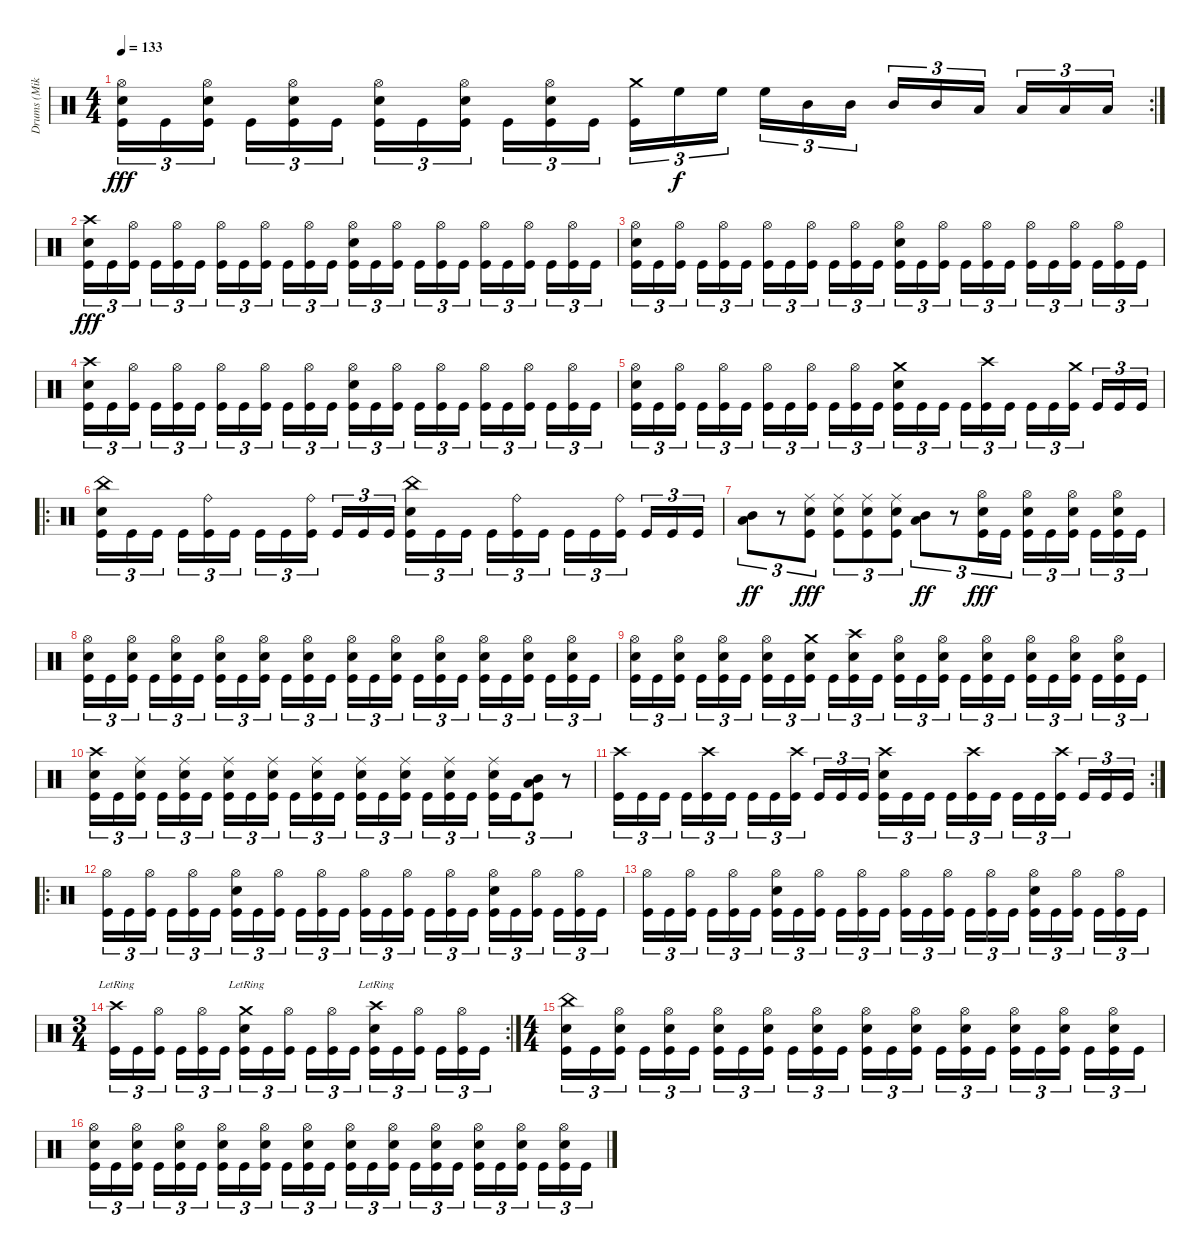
\track ("Drums (Mike)" "Drums (Mik") {instrument percussion}
\staff {score}
\articulation defaults
\rc 2
\ts (4 4)
\tempo 133
\clef neutral
\ks c
("Hi-Hat (open)" "Electric Snare (hit)" "Kick (hit)").16{tu (3 2) dy fff} "Kick (hit)".16{tu (3 2)} ("Hi-Hat (open)" "Electric Snare (hit)" "Kick (hit)").16{tu (3 2)} "Kick (hit)".16{tu (3 2)} ("Hi-Hat (open)" "Electric Snare (hit)" "Kick (hit)").16{tu (3 2)} "Kick (hit)".16{tu (3 2)} ("Hi-Hat (open)" "Electric Snare (hit)" "Kick (hit)").16{tu (3 2)} "Kick (hit)".16{tu (3 2)} ("Hi-Hat (open)" "Electric Snare (hit)" "Kick (hit)").16{tu (3 2)} "Kick (hit)".16{tu (3 2)} ("Hi-Hat (open)" "Electric Snare (hit)" "Kick (hit)").16{tu (3 2)} "Kick (hit)".16{tu (3 2)} ("Crash medium (hit)" "Kick (hit)").16{tu (3 2)} "High Floor Tom (hit)".16{tu (3 2) dy f} "High Floor Tom (hit)".16{tu (3 2)} "High Floor Tom (hit)".16{tu (3 2)} "Mid Tom (hit)".16{tu (3 2)} "Mid Tom (hit)".16{tu (3 2)} "Mid Tom (hit)".16{tu (3 2)} "Mid Tom (hit)".16{tu (3 2)} "Low Tom (hit)".16{tu (3 2)} "Low Tom (hit)".16{tu (3 2)} "Low Tom (hit)".16{tu (3 2)} "Low Tom (hit)".16{tu (3 2)} |
("Crash high (hit)" "Electric Snare (hit)" "Kick (hit)").16{tu (3 2) dy fff} "Kick (hit)".16{tu (3 2)} ("Hi-Hat (open)" "Kick (hit)").16{tu (3 2)} "Kick (hit)".16{tu (3 2)} ("Hi-Hat (open)" "Kick (hit)").16{tu (3 2)} "Kick (hit)".16{tu (3 2)} ("Hi-Hat (open)" "Kick (hit)").16{tu (3 2)} "Kick (hit)".16{tu (3 2)} ("Hi-Hat (open)" "Kick (hit)").16{tu (3 2)} "Kick (hit)".16{tu (3 2)} ("Hi-Hat (open)" "Kick (hit)").16{tu (3 2)} "Kick (hit)".16{tu (3 2)} ("Hi-Hat (open)" "Electric Snare (hit)" "Kick (hit)").16{tu (3 2)} "Kick (hit)".16{tu (3 2)} ("Hi-Hat (open)" "Kick (hit)").16{tu (3 2)} "Kick (hit)".16{tu (3 2)} ("Hi-Hat (open)" "Kick (hit)").16{tu (3 2)} "Kick (hit)".16{tu (3 2)} ("Hi-Hat (open)" "Kick (hit)").16{tu (3 2)} "Kick (hit)".16{tu (3 2)} ("Hi-Hat (open)" "Kick (hit)").16{tu (3 2)} "Kick (hit)".16{tu (3 2)} ("Hi-Hat (open)" "Kick (hit)").16{tu (3 2)} "Kick (hit)".16{tu (3 2)} |
("Hi-Hat (open)" "Electric Snare (hit)" "Kick (hit)").16{tu (3 2)} "Kick (hit)".16{tu (3 2)} ("Hi-Hat (open)" "Kick (hit)").16{tu (3 2)} "Kick (hit)".16{tu (3 2)} ("Hi-Hat (open)" "Kick (hit)").16{tu (3 2)} "Kick (hit)".16{tu (3 2)} ("Hi-Hat (open)" "Kick (hit)").16{tu (3 2)} "Kick (hit)".16{tu (3 2)} ("Hi-Hat (open)" "Kick (hit)").16{tu (3 2)} "Kick (hit)".16{tu (3 2)} ("Hi-Hat (open)" "Kick (hit)").16{tu (3 2)} "Kick (hit)".16{tu (3 2)} ("Hi-Hat (open)" "Electric Snare (hit)" "Kick (hit)").16{tu (3 2)} "Kick (hit)".16{tu (3 2)} ("Hi-Hat (open)" "Kick (hit)").16{tu (3 2)} "Kick (hit)".16{tu (3 2)} ("Hi-Hat (open)" "Kick (hit)").16{tu (3 2)} "Kick (hit)".16{tu (3 2)} ("Hi-Hat (open)" "Kick (hit)").16{tu (3 2)} "Kick (hit)".16{tu (3 2)} ("Hi-Hat (open)" "Kick (hit)").16{tu (3 2)} "Kick (hit)".16{tu (3 2)} ("Hi-Hat (open)" "Kick (hit)").16{tu (3 2)} "Kick (hit)".16{tu (3 2)} |
("Crash high (hit)" "Electric Snare (hit)" "Kick (hit)").16{tu (3 2)} "Kick (hit)".16{tu (3 2)} ("Hi-Hat (open)" "Kick (hit)").16{tu (3 2)} "Kick (hit)".16{tu (3 2)} ("Hi-Hat (open)" "Kick (hit)").16{tu (3 2)} "Kick (hit)".16{tu (3 2)} ("Hi-Hat (open)" "Kick (hit)").16{tu (3 2)} "Kick (hit)".16{tu (3 2)} ("Hi-Hat (open)" "Kick (hit)").16{tu (3 2)} "Kick (hit)".16{tu (3 2)} ("Hi-Hat (open)" "Kick (hit)").16{tu (3 2)} "Kick (hit)".16{tu (3 2)} ("Hi-Hat (open)" "Electric Snare (hit)" "Kick (hit)").16{tu (3 2)} "Kick (hit)".16{tu (3 2)} ("Hi-Hat (open)" "Kick (hit)").16{tu (3 2)} "Kick (hit)".16{tu (3 2)} ("Hi-Hat (open)" "Kick (hit)").16{tu (3 2)} "Kick (hit)".16{tu (3 2)} ("Hi-Hat (open)" "Kick (hit)").16{tu (3 2)} "Kick (hit)".16{tu (3 2)} ("Hi-Hat (open)" "Kick (hit)").16{tu (3 2)} "Kick (hit)".16{tu (3 2)} ("Hi-Hat (open)" "Kick (hit)").16{tu (3 2)} "Kick (hit)".16{tu (3 2)} |
("Hi-Hat (open)" "Electric Snare (hit)" "Kick (hit)").16{tu (3 2)} "Kick (hit)".16{tu (3 2)} ("Hi-Hat (open)" "Kick (hit)").16{tu (3 2)} "Kick (hit)".16{tu (3 2)} ("Hi-Hat (open)" "Kick (hit)").16{tu (3 2)} "Kick (hit)".16{tu (3 2)} ("Hi-Hat (open)" "Kick (hit)").16{tu (3 2)} "Kick (hit)".16{tu (3 2)} ("Hi-Hat (open)" "Kick (hit)").16{tu (3 2)} "Kick (hit)".16{tu (3 2)} ("Hi-Hat (open)" "Kick (hit)").16{tu (3 2)} "Kick (hit)".16{tu (3 2)} ("Crash medium (hit)" "Electric Snare (hit)" "Kick (hit)").16{tu (3 2)} "Kick (hit)".16{tu (3 2)} "Kick (hit)".16{tu (3 2)} "Kick (hit)".16{tu (3 2)} ("Crash high (hit)" "Kick (hit)").16{tu (3 2)} "Kick (hit)".16{tu (3 2)} "Kick (hit)".16{tu (3 2)} "Kick (hit)".16{tu (3 2)} ("Crash medium (hit)" "Kick (hit)").16{tu (3 2)} "Kick (hit)".16{tu (3 2)} "Kick (hit)".16{tu (3 2)} "Kick (hit)".16{tu (3 2)} |
\ro
("China (hit)" "Electric Snare (hit)" "Kick (hit)").16{tu (3 2)} "Kick (hit)".16{tu (3 2)} "Kick (hit)".16{tu (3 2)} "Kick (hit)".16{tu (3 2)} ("Ride (bell)" "Kick (hit)").16{tu (3 2)} "Kick (hit)".16{tu (3 2)} "Kick (hit)".16{tu (3 2)} "Kick (hit)".16{tu (3 2)} ("Ride (bell)" "Kick (hit)").16{tu (3 2)} "Kick (hit)".16{tu (3 2)} "Kick (hit)".16{tu (3 2)} "Kick (hit)".16{tu (3 2)} ("China (hit)" "Electric Snare (hit)" "Kick (hit)").16{tu (3 2)} "Kick (hit)".16{tu (3 2)} "Kick (hit)".16{tu (3 2)} "Kick (hit)".16{tu (3 2)} ("Ride (bell)" "Kick (hit)").16{tu (3 2)} "Kick (hit)".16{tu (3 2)} "Kick (hit)".16{tu (3 2)} "Kick (hit)".16{tu (3 2)} ("Ride (bell)" "Kick (hit)").16{tu (3 2)} "Kick (hit)".16{tu (3 2)} "Kick (hit)".16{tu (3 2)} "Kick (hit)".16{tu (3 2)} |
("Low Tom (hit)" "Mid Tom (hit)").8{tu (3 2) dy ff} r.8{tu (3 2)} ("Ride (middle)" "Electric Snare (hit)" "Kick (hit)").8{tu (3 2) dy fff} ("Ride (middle)" "Electric Snare (hit)" "Kick (hit)").8{tu (3 2)} ("Ride (middle)" "Electric Snare (hit)" "Kick (hit)").8{tu (3 2)} ("Ride (middle)" "Electric Snare (hit)" "Kick (hit)").8{tu (3 2)} ("Low Tom (hit)" "Mid Tom (hit)").8{tu (3 2) dy ff} r.8{tu (3 2)} ("Hi-Hat (open)" "Electric Snare (hit)" "Kick (hit)").16{tu (3 2) dy fff} "Kick (hit)".16{tu (3 2)} ("Hi-Hat (open)" "Electric Snare (hit)" "Kick (hit)").16{tu (3 2)} "Kick (hit)".16{tu (3 2)} ("Hi-Hat (open)" "Electric Snare (hit)" "Kick (hit)").16{tu (3 2)} "Kick (hit)".16{tu (3 2)} ("Hi-Hat (open)" "Electric Snare (hit)" "Kick (hit)").16{tu (3 2)} "Kick (hit)".16{tu (3 2)} |
("Hi-Hat (open)" "Electric Snare (hit)" "Kick (hit)").16{tu (3 2)} "Kick (hit)".16{tu (3 2)} ("Hi-Hat (open)" "Electric Snare (hit)" "Kick (hit)").16{tu (3 2)} "Kick (hit)".16{tu (3 2)} ("Hi-Hat (open)" "Electric Snare (hit)" "Kick (hit)").16{tu (3 2)} "Kick (hit)".16{tu (3 2)} ("Hi-Hat (open)" "Electric Snare (hit)" "Kick (hit)").16{tu (3 2)} "Kick (hit)".16{tu (3 2)} ("Hi-Hat (open)" "Electric Snare (hit)" "Kick (hit)").16{tu (3 2)} "Kick (hit)".16{tu (3 2)} ("Hi-Hat (open)" "Electric Snare (hit)" "Kick (hit)").16{tu (3 2)} "Kick (hit)".16{tu (3 2)} ("Hi-Hat (open)" "Electric Snare (hit)" "Kick (hit)").16{tu (3 2)} "Kick (hit)".16{tu (3 2)} ("Hi-Hat (open)" "Electric Snare (hit)" "Kick (hit)").16{tu (3 2)} "Kick (hit)".16{tu (3 2)} ("Hi-Hat (open)" "Electric Snare (hit)" "Kick (hit)").16{tu (3 2)} "Kick (hit)".16{tu (3 2)} ("Hi-Hat (open)" "Electric Snare (hit)" "Kick (hit)").16{tu (3 2)} "Kick (hit)".16{tu (3 2)} ("Hi-Hat (open)" "Electric Snare (hit)" "Kick (hit)").16{tu (3 2)} "Kick (hit)".16{tu (3 2)} ("Hi-Hat (open)" "Electric Snare (hit)" "Kick (hit)").16{tu (3 2)} "Kick (hit)".16{tu (3 2)} |
("Hi-Hat (open)" "Electric Snare (hit)" "Kick (hit)").16{tu (3 2)} "Kick (hit)".16{tu (3 2)} ("Hi-Hat (open)" "Electric Snare (hit)" "Kick (hit)").16{tu (3 2)} "Kick (hit)".16{tu (3 2)} ("Hi-Hat (open)" "Electric Snare (hit)" "Kick (hit)").16{tu (3 2)} "Kick (hit)".16{tu (3 2)} ("Hi-Hat (open)" "Electric Snare (hit)" "Kick (hit)").16{tu (3 2)} "Kick (hit)".16{tu (3 2)} ("Crash medium (hit)" "Electric Snare (hit)" "Kick (hit)").16{tu (3 2)} "Kick (hit)".16{tu (3 2)} ("Crash high (hit)" "Electric Snare (hit)" "Kick (hit)").16{tu (3 2)} "Kick (hit)".16{tu (3 2)} ("Hi-Hat (open)" "Electric Snare (hit)" "Kick (hit)").16{tu (3 2)} "Kick (hit)".16{tu (3 2)} ("Hi-Hat (open)" "Electric Snare (hit)" "Kick (hit)").16{tu (3 2)} "Kick (hit)".16{tu (3 2)} ("Hi-Hat (open)" "Electric Snare (hit)" "Kick (hit)").16{tu (3 2)} "Kick (hit)".16{tu (3 2)} ("Hi-Hat (open)" "Electric Snare (hit)" "Kick (hit)").16{tu (3 2)} "Kick (hit)".16{tu (3 2)} ("Hi-Hat (open)" "Electric Snare (hit)" "Kick (hit)").16{tu (3 2)} "Kick (hit)".16{tu (3 2)} ("Hi-Hat (open)" "Electric Snare (hit)" "Kick (hit)").16{tu (3 2)} "Kick (hit)".16{tu (3 2)} |
("Crash high (hit)" "Electric Snare (hit)" "Kick (hit)").16{tu (3 2)} "Kick (hit)".16{tu (3 2)} ("Ride (middle)" "Electric Snare (hit)" "Kick (hit)").16{tu (3 2)} "Kick (hit)".16{tu (3 2)} ("Ride (middle)" "Electric Snare (hit)" "Kick (hit)").16{tu (3 2)} "Kick (hit)".16{tu (3 2)} ("Ride (middle)" "Electric Snare (hit)" "Kick (hit)").16{tu (3 2)} "Kick (hit)".16{tu (3 2)} ("Ride (middle)" "Electric Snare (hit)" "Kick (hit)").16{tu (3 2)} "Kick (hit)".16{tu (3 2)} ("Ride (middle)" "Electric Snare (hit)" "Kick (hit)").16{tu (3 2)} "Kick (hit)".16{tu (3 2)} ("Ride (middle)" "Electric Snare (hit)" "Kick (hit)").16{tu (3 2)} "Kick (hit)".16{tu (3 2)} ("Ride (middle)" "Electric Snare (hit)" "Kick (hit)").16{tu (3 2)} "Kick (hit)".16{tu (3 2)} ("Ride (middle)" "Electric Snare (hit)" "Kick (hit)").16{tu (3 2)} "Kick (hit)".16{tu (3 2)} ("Ride (middle)" "Electric Snare (hit)" "Kick (hit)").16{tu (3 2)} "Kick (hit)".16{tu (3 2)} ("Low Tom (hit)" "Mid Tom (hit)" "Kick (hit)").8{tu (3 2)} r.8{tu (3 2)} |
\rc 2
("Crash high (hit)" "Kick (hit)").16{tu (3 2)} "Kick (hit)".16{tu (3 2)} "Kick (hit)".16{tu (3 2)} "Kick (hit)".16{tu (3 2)} ("Crash high (hit)" "Kick (hit)").16{tu (3 2)} "Kick (hit)".16{tu (3 2)} "Kick (hit)".16{tu (3 2)} "Kick (hit)".16{tu (3 2)} ("Crash high (hit)" "Kick (hit)").16{tu (3 2)} "Kick (hit)".16{tu (3 2)} "Kick (hit)".16{tu (3 2)} "Kick (hit)".16{tu (3 2)} ("Crash high (hit)" "Electric Snare (hit)" "Kick (hit)").16{tu (3 2)} "Kick (hit)".16{tu (3 2)} "Kick (hit)".16{tu (3 2)} "Kick (hit)".16{tu (3 2)} ("Crash high (hit)" "Kick (hit)").16{tu (3 2)} "Kick (hit)".16{tu (3 2)} "Kick (hit)".16{tu (3 2)} "Kick (hit)".16{tu (3 2)} ("Crash high (hit)" "Kick (hit)").16{tu (3 2)} "Kick (hit)".16{tu (3 2)} "Kick (hit)".16{tu (3 2)} "Kick (hit)".16{tu (3 2)} |
\ro
("Hi-Hat (open)" "Kick (hit)").16{tu (3 2)} "Kick (hit)".16{tu (3 2)} ("Hi-Hat (open)" "Kick (hit)").16{tu (3 2)} "Kick (hit)".16{tu (3 2)} ("Hi-Hat (open)" "Kick (hit)").16{tu (3 2)} "Kick (hit)".16{tu (3 2)} ("Hi-Hat (open)" "Electric Snare (hit)" "Kick (hit)").16{tu (3 2)} "Kick (hit)".16{tu (3 2)} ("Hi-Hat (open)" "Kick (hit)").16{tu (3 2)} "Kick (hit)".16{tu (3 2)} ("Hi-Hat (open)" "Kick (hit)").16{tu (3 2)} "Kick (hit)".16{tu (3 2)} ("Hi-Hat (open)" "Kick (hit)").16{tu (3 2)} "Kick (hit)".16{tu (3 2)} ("Hi-Hat (open)" "Kick (hit)").16{tu (3 2)} "Kick (hit)".16{tu (3 2)} ("Hi-Hat (open)" "Kick (hit)").16{tu (3 2)} "Kick (hit)".16{tu (3 2)} ("Hi-Hat (open)" "Electric Snare (hit)" "Kick (hit)").16{tu (3 2)} "Kick (hit)".16{tu (3 2)} ("Hi-Hat (open)" "Kick (hit)").16{tu (3 2)} "Kick (hit)".16{tu (3 2)} ("Hi-Hat (open)" "Kick (hit)").16{tu (3 2)} "Kick (hit)".16{tu (3 2)} |
("Hi-Hat (open)" "Kick (hit)").16{tu (3 2)} "Kick (hit)".16{tu (3 2)} ("Hi-Hat (open)" "Kick (hit)").16{tu (3 2)} "Kick (hit)".16{tu (3 2)} ("Hi-Hat (open)" "Kick (hit)").16{tu (3 2)} "Kick (hit)".16{tu (3 2)} ("Hi-Hat (open)" "Electric Snare (hit)" "Kick (hit)").16{tu (3 2)} "Kick (hit)".16{tu (3 2)} ("Hi-Hat (open)" "Kick (hit)").16{tu (3 2)} "Kick (hit)".16{tu (3 2)} ("Hi-Hat (open)" "Kick (hit)").16{tu (3 2)} "Kick (hit)".16{tu (3 2)} ("Hi-Hat (open)" "Kick (hit)").16{tu (3 2)} "Kick (hit)".16{tu (3 2)} ("Hi-Hat (open)" "Kick (hit)").16{tu (3 2)} "Kick (hit)".16{tu (3 2)} ("Hi-Hat (open)" "Kick (hit)").16{tu (3 2)} "Kick (hit)".16{tu (3 2)} ("Hi-Hat (open)" "Electric Snare (hit)" "Kick (hit)").16{tu (3 2)} "Kick (hit)".16{tu (3 2)} ("Hi-Hat (open)" "Kick (hit)").16{tu (3 2)} "Kick (hit)".16{tu (3 2)} ("Hi-Hat (open)" "Kick (hit)").16{tu (3 2)} "Kick (hit)".16{tu (3 2)} |
\rc 2
\ts (3 4)
("Crash high (hit)"{lr} "Kick (hit)").16{tu (3 2)} "Kick (hit)".16{tu (3 2)} ("Hi-Hat (open)" "Kick (hit)").16{tu (3 2)} "Kick (hit)".16{tu (3 2)} ("Hi-Hat (open)" "Kick (hit)").16{tu (3 2)} "Kick (hit)".16{tu (3 2)} ("Crash medium (hit)"{lr} "Electric Snare (hit)" "Kick (hit)").16{tu (3 2)} "Kick (hit)".16{tu (3 2)} ("Hi-Hat (open)" "Kick (hit)").16{tu (3 2)} "Kick (hit)".16{tu (3 2)} ("Hi-Hat (open)" "Kick (hit)").16{tu (3 2)} "Kick (hit)".16{tu (3 2)} ("Crash high (hit)"{lr} "Electric Snare (hit)" "Kick (hit)").16{tu (3 2)} "Kick (hit)".16{tu (3 2)} ("Hi-Hat (open)" "Kick (hit)").16{tu (3 2)} "Kick (hit)".16{tu (3 2)} ("Hi-Hat (open)" "Kick (hit)").16{tu (3 2)} "Kick (hit)".16{tu (3 2)} |
\ts (4 4)
("China (hit)" "Electric Snare (hit)" "Kick (hit)").16{tu (3 2)} "Kick (hit)".16{tu (3 2)} ("Hi-Hat (open)" "Electric Snare (hit)" "Kick (hit)").16{tu (3 2)} "Kick (hit)".16{tu (3 2)} ("Hi-Hat (open)" "Electric Snare (hit)" "Kick (hit)").16{tu (3 2)} "Kick (hit)".16{tu (3 2)} ("Hi-Hat (open)" "Electric Snare (hit)" "Kick (hit)").16{tu (3 2)} "Kick (hit)".16{tu (3 2)} ("Hi-Hat (open)" "Electric Snare (hit)" "Kick (hit)").16{tu (3 2)} "Kick (hit)".16{tu (3 2)} ("Hi-Hat (open)" "Electric Snare (hit)" "Kick (hit)").16{tu (3 2)} "Kick (hit)".16{tu (3 2)} ("Hi-Hat (open)" "Electric Snare (hit)" "Kick (hit)").16{tu (3 2)} "Kick (hit)".16{tu (3 2)} ("Hi-Hat (open)" "Electric Snare (hit)" "Kick (hit)").16{tu (3 2)} "Kick (hit)".16{tu (3 2)} ("Hi-Hat (open)" "Electric Snare (hit)" "Kick (hit)").16{tu (3 2)} "Kick (hit)".16{tu (3 2)} ("Hi-Hat (open)" "Electric Snare (hit)" "Kick (hit)").16{tu (3 2)} "Kick (hit)".16{tu (3 2)} ("Hi-Hat (open)" "Electric Snare (hit)" "Kick (hit)").16{tu (3 2)} "Kick (hit)".16{tu (3 2)} ("Hi-Hat (open)" "Electric Snare (hit)" "Kick (hit)").16{tu (3 2)} "Kick (hit)".16{tu (3 2)} |
("Hi-Hat (open)" "Electric Snare (hit)" "Kick (hit)").16{tu (3 2)} "Kick (hit)".16{tu (3 2)} ("Hi-Hat (open)" "Electric Snare (hit)" "Kick (hit)").16{tu (3 2)} "Kick (hit)".16{tu (3 2)} ("Hi-Hat (open)" "Electric Snare (hit)" "Kick (hit)").16{tu (3 2)} "Kick (hit)".16{tu (3 2)} ("Hi-Hat (open)" "Electric Snare (hit)" "Kick (hit)").16{tu (3 2)} "Kick (hit)".16{tu (3 2)} ("Hi-Hat (open)" "Electric Snare (hit)" "Kick (hit)").16{tu (3 2)} "Kick (hit)".16{tu (3 2)} ("Hi-Hat (open)" "Electric Snare (hit)" "Kick (hit)").16{tu (3 2)} "Kick (hit)".16{tu (3 2)} ("Hi-Hat (open)" "Electric Snare (hit)" "Kick (hit)").16{tu (3 2)} "Kick (hit)".16{tu (3 2)} ("Hi-Hat (open)" "Electric Snare (hit)" "Kick (hit)").16{tu (3 2)} "Kick (hit)".16{tu (3 2)} ("Hi-Hat (open)" "Electric Snare (hit)" "Kick (hit)").16{tu (3 2)} "Kick (hit)".16{tu (3 2)} ("Hi-Hat (open)" "Electric Snare (hit)" "Kick (hit)").16{tu (3 2)} "Kick (hit)".16{tu (3 2)} ("Hi-Hat (open)" "Electric Snare (hit)" "Kick (hit)").16{tu (3 2)} "Kick (hit)".16{tu (3 2)} ("Hi-Hat (open)" "Electric Snare (hit)" "Kick (hit)").16{tu (3 2)} "Kick (hit)".16{tu (3 2)}
